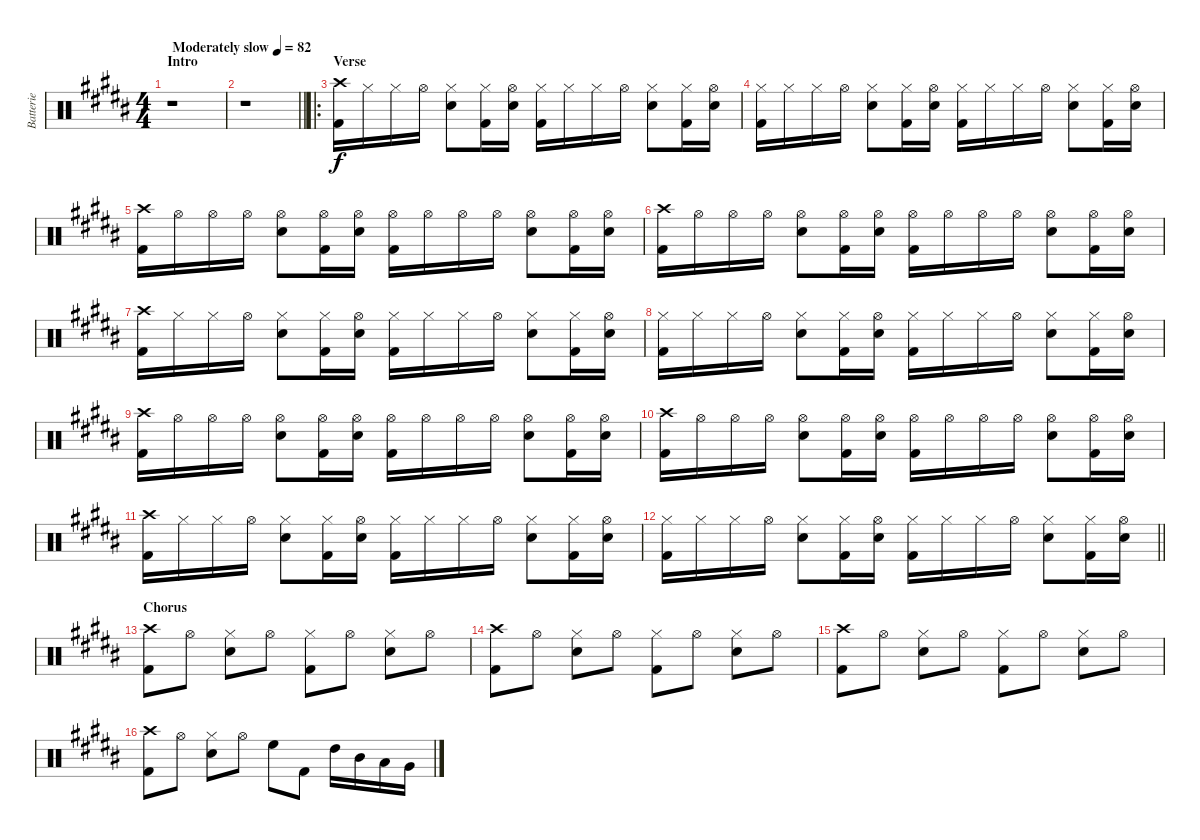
\track ("Batterie" "Batterie") {instrument percussion}
\staff {score}
\articulation defaults
\ts (4 4)
\section ("" "Intro")
\tempo (82 "Moderately slow")
\clef neutral
\ks b
r.1{dy f} |
\barLineRight lightlight
r.1 |
\ro
\section ("" "Verse")
("Crash high (hit)" "Kick (hit) 2").16 "Hi-Hat (closed)".16 "Hi-Hat (closed)".16 "Hi-Hat (open)".16 ("Hi-Hat (closed)" "Snare (hit) 2").8 ("Hi-Hat (closed)" "Kick (hit) 2").16 ("Hi-Hat (open)" "Snare (hit) 2").16 ("Hi-Hat (closed)" "Kick (hit) 2").16 "Hi-Hat (closed)".16 "Hi-Hat (closed)".16 "Hi-Hat (open)".16 ("Hi-Hat (closed)" "Snare (hit) 2").8 ("Hi-Hat (closed)" "Kick (hit) 2").16 ("Hi-Hat (open)" "Snare (hit) 2").16 |
("Hi-Hat (closed)" "Kick (hit) 2").16 "Hi-Hat (closed)".16 "Hi-Hat (closed)".16 "Hi-Hat (open)".16 ("Hi-Hat (closed)" "Snare (hit) 2").8 ("Hi-Hat (closed)" "Kick (hit) 2").16 ("Hi-Hat (open)" "Snare (hit) 2").16 ("Hi-Hat (closed)" "Kick (hit) 2").16 "Hi-Hat (closed)".16 "Hi-Hat (closed)".16 "Hi-Hat (open)".16 ("Hi-Hat (closed)" "Snare (hit) 2").8 ("Hi-Hat (closed)" "Kick (hit) 2").16 ("Hi-Hat (open)" "Snare (hit) 2").16 |
("Crash high (hit)" "Kick (hit) 2").16 "Hi-Hat (open)".16 "Hi-Hat (open)".16 "Hi-Hat (open)".16 ("Hi-Hat (open)" "Snare (hit) 2").8 ("Hi-Hat (open)" "Kick (hit) 2").16 ("Hi-Hat (open)" "Snare (hit) 2").16 ("Hi-Hat (open)" "Kick (hit) 2").16 "Hi-Hat (open)".16 "Hi-Hat (open)".16 "Hi-Hat (open)".16 ("Hi-Hat (open)" "Snare (hit) 2").8 ("Hi-Hat (open)" "Kick (hit) 2").16 ("Hi-Hat (open)" "Snare (hit) 2").16 |
("Crash high (hit)" "Kick (hit) 2").16 "Hi-Hat (open)".16 "Hi-Hat (open)".16 "Hi-Hat (open)".16 ("Hi-Hat (open)" "Snare (hit) 2").8 ("Hi-Hat (open)" "Kick (hit) 2").16 ("Hi-Hat (open)" "Snare (hit) 2").16 ("Hi-Hat (open)" "Kick (hit) 2").16 "Hi-Hat (open)".16 "Hi-Hat (open)".16 "Hi-Hat (open)".16 ("Hi-Hat (open)" "Snare (hit) 2").8 ("Hi-Hat (open)" "Kick (hit) 2").16 ("Hi-Hat (open)" "Snare (hit) 2").16 |
("Crash high (hit)" "Kick (hit) 2").16 "Hi-Hat (closed)".16 "Hi-Hat (closed)".16 "Hi-Hat (open)".16 ("Hi-Hat (closed)" "Snare (hit) 2").8 ("Hi-Hat (closed)" "Kick (hit) 2").16 ("Hi-Hat (open)" "Snare (hit) 2").16 ("Hi-Hat (closed)" "Kick (hit) 2").16 "Hi-Hat (closed)".16 "Hi-Hat (closed)".16 "Hi-Hat (open)".16 ("Hi-Hat (closed)" "Snare (hit) 2").8 ("Hi-Hat (closed)" "Kick (hit) 2").16 ("Hi-Hat (open)" "Snare (hit) 2").16 |
("Hi-Hat (closed)" "Kick (hit) 2").16 "Hi-Hat (closed)".16 "Hi-Hat (closed)".16 "Hi-Hat (open)".16 ("Hi-Hat (closed)" "Snare (hit) 2").8 ("Hi-Hat (closed)" "Kick (hit) 2").16 ("Hi-Hat (open)" "Snare (hit) 2").16 ("Hi-Hat (closed)" "Kick (hit) 2").16 "Hi-Hat (closed)".16 "Hi-Hat (closed)".16 "Hi-Hat (open)".16 ("Hi-Hat (closed)" "Snare (hit) 2").8 ("Hi-Hat (closed)" "Kick (hit) 2").16 ("Hi-Hat (open)" "Snare (hit) 2").16 |
("Crash high (hit)" "Kick (hit) 2").16 "Hi-Hat (open)".16 "Hi-Hat (open)".16 "Hi-Hat (open)".16 ("Hi-Hat (open)" "Snare (hit) 2").8 ("Hi-Hat (open)" "Kick (hit) 2").16 ("Hi-Hat (open)" "Snare (hit) 2").16 ("Hi-Hat (open)" "Kick (hit) 2").16 "Hi-Hat (open)".16 "Hi-Hat (open)".16 "Hi-Hat (open)".16 ("Hi-Hat (open)" "Snare (hit) 2").8 ("Hi-Hat (open)" "Kick (hit) 2").16 ("Hi-Hat (open)" "Snare (hit) 2").16 |
("Crash high (hit)" "Kick (hit) 2").16 "Hi-Hat (open)".16 "Hi-Hat (open)".16 "Hi-Hat (open)".16 ("Hi-Hat (open)" "Snare (hit) 2").8 ("Hi-Hat (open)" "Kick (hit) 2").16 ("Hi-Hat (open)" "Snare (hit) 2").16 ("Hi-Hat (open)" "Kick (hit) 2").16 "Hi-Hat (open)".16 "Hi-Hat (open)".16 "Hi-Hat (open)".16 ("Hi-Hat (open)" "Snare (hit) 2").8 ("Hi-Hat (open)" "Kick (hit) 2").16 ("Hi-Hat (open)" "Snare (hit) 2").16 |
("Crash high (hit)" "Kick (hit) 2").16 "Hi-Hat (closed)".16 "Hi-Hat (closed)".16 "Hi-Hat (open)".16 ("Hi-Hat (closed)" "Snare (hit) 2").8 ("Hi-Hat (closed)" "Kick (hit) 2").16 ("Hi-Hat (open)" "Snare (hit) 2").16 ("Hi-Hat (closed)" "Kick (hit) 2").16 "Hi-Hat (closed)".16 "Hi-Hat (closed)".16 "Hi-Hat (open)".16 ("Hi-Hat (closed)" "Snare (hit) 2").8 ("Hi-Hat (closed)" "Kick (hit) 2").16 ("Hi-Hat (open)" "Snare (hit) 2").16 |
\barLineRight lightlight
("Hi-Hat (closed)" "Kick (hit) 2").16 "Hi-Hat (closed)".16 "Hi-Hat (closed)".16 "Hi-Hat (open)".16 ("Hi-Hat (closed)" "Snare (hit) 2").8 ("Hi-Hat (closed)" "Kick (hit) 2").16 ("Hi-Hat (open)" "Snare (hit) 2").16 ("Hi-Hat (closed)" "Kick (hit) 2").16 "Hi-Hat (closed)".16 "Hi-Hat (closed)".16 "Hi-Hat (open)".16 ("Hi-Hat (closed)" "Snare (hit) 2").8 ("Hi-Hat (closed)" "Kick (hit) 2").16 ("Hi-Hat (open)" "Snare (hit) 2").16 |
\section ("" "Chorus")
("Crash high (hit)" "Kick (hit) 2").8 "Hi-Hat (open)".8 ("Hi-Hat (closed)" "Snare (hit) 2").8 "Hi-Hat (open)".8 ("Hi-Hat (closed)" "Kick (hit) 2").8 "Hi-Hat (open)".8 ("Hi-Hat (closed)" "Snare (hit) 2").8 "Hi-Hat (open)".8 |
("Crash high (hit)" "Kick (hit) 2").8 "Hi-Hat (open)".8 ("Hi-Hat (closed)" "Snare (hit) 2").8 "Hi-Hat (open)".8 ("Hi-Hat (closed)" "Kick (hit) 2").8 "Hi-Hat (open)".8 ("Hi-Hat (closed)" "Snare (hit) 2").8 "Hi-Hat (open)".8 |
("Crash high (hit)" "Kick (hit) 2").8 "Hi-Hat (open)".8 ("Hi-Hat (closed)" "Snare (hit) 2").8 "Hi-Hat (open)".8 ("Hi-Hat (closed)" "Kick (hit) 2").8 "Hi-Hat (open)".8 ("Hi-Hat (closed)" "Snare (hit) 2").8 "Hi-Hat (open)".8 |
("Crash high (hit)" "Kick (hit) 2").8 "Hi-Hat (open)".8 ("Hi-Hat (closed)" "Snare (hit) 2").8 "Hi-Hat (open)".8 "High Floor Tom (hit)".8 "Kick (hit) 2".8 "High Tom (hit)".16 "Mid Tom (hit)".16 "Low Tom (hit)".16 "Very Low Tom (hit)".16
